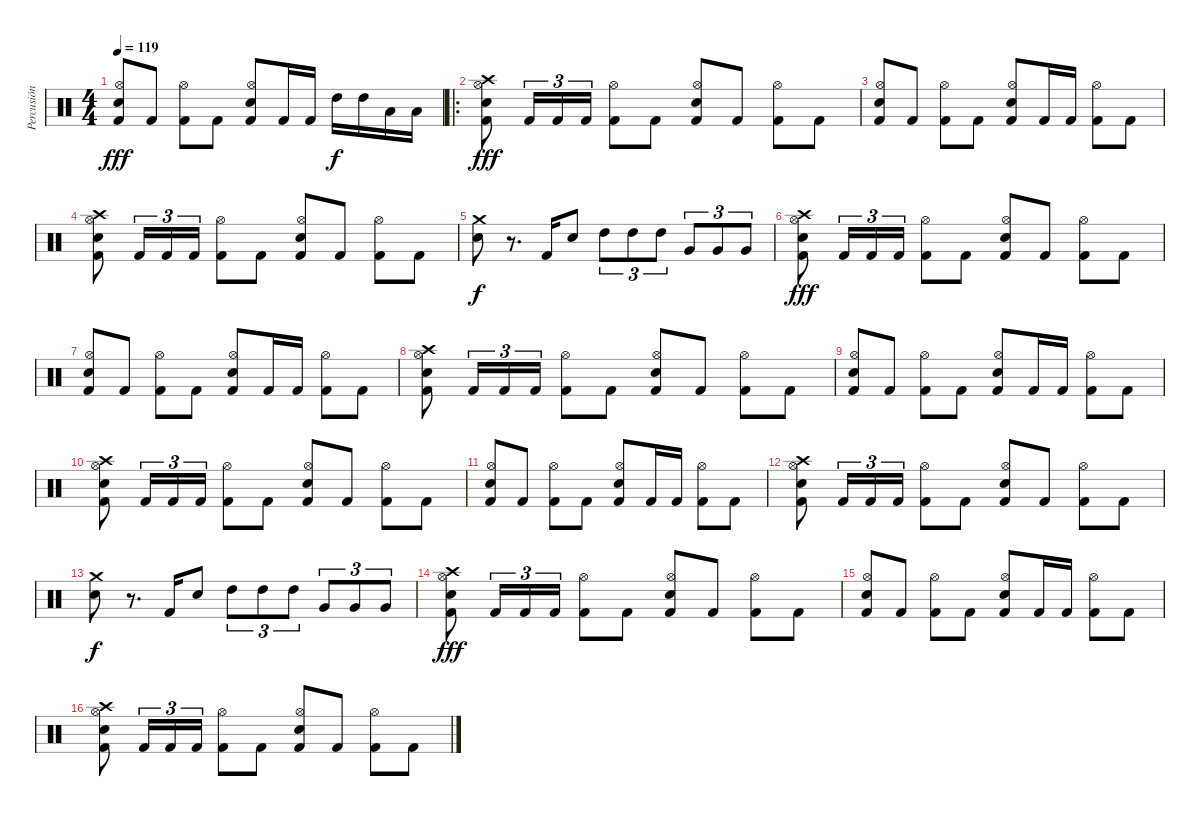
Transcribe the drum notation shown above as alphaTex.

\track ("Percusión" "Percusión") {instrument percussion}
\staff {score}
\articulation defaults
\ts (4 4)
\tempo 119
\clef neutral
\ks c
("Electric Snare (hit)" "Hi-Hat (open)" "Kick (hit) 2").8{dy fff} "Kick (hit) 2".8 ("Hi-Hat (open)" "Kick (hit) 2").8 "Kick (hit) 2".8 ("Electric Snare (hit)" "Hi-Hat (open)" "Kick (hit) 2").8 "Kick (hit) 2".16 "Kick (hit) 2".16 "High Tom (hit)".16{dy f} "High Tom (hit)".16 "Low Tom (hit)".16 "Low Tom (hit)".16 |
\ro
("Crash high (hit)" "Electric Snare (hit)" "Hi-Hat (open)" "Kick (hit) 2").8{dy fff} "Kick (hit) 2".16{tu (3 2)} "Kick (hit) 2".16{tu (3 2)} "Kick (hit) 2".16{tu (3 2)} ("Hi-Hat (open)" "Kick (hit) 2").8 "Kick (hit) 2".8 ("Electric Snare (hit)" "Hi-Hat (open)" "Kick (hit) 2").8 "Kick (hit) 2".8 ("Hi-Hat (open)" "Kick (hit) 2").8 "Kick (hit) 2".8 |
("Electric Snare (hit)" "Hi-Hat (open)" "Kick (hit) 2").8 "Kick (hit) 2".8 ("Hi-Hat (open)" "Kick (hit) 2").8 "Kick (hit) 2".8 ("Electric Snare (hit)" "Hi-Hat (open)" "Kick (hit) 2").8 "Kick (hit) 2".16 "Kick (hit) 2".16 ("Hi-Hat (open)" "Kick (hit) 2").8 "Kick (hit) 2".8 |
("Crash high (hit)" "Electric Snare (hit)" "Hi-Hat (open)" "Kick (hit) 2").8 "Kick (hit) 2".16{tu (3 2)} "Kick (hit) 2".16{tu (3 2)} "Kick (hit) 2".16{tu (3 2)} ("Hi-Hat (open)" "Kick (hit) 2").8 "Kick (hit) 2".8 ("Electric Snare (hit)" "Hi-Hat (open)" "Kick (hit) 2").8 "Kick (hit) 2".8 ("Hi-Hat (open)" "Kick (hit) 2").8 "Kick (hit) 2".8 |
("Crash medium (hit)" "Electric Snare (hit)").8{dy f} r.8{d} "Kick (hit) 2".16 "Electric Snare (hit)".8 "High Tom (hit)".8{tu (3 2)} "High Tom (hit)".8{tu (3 2)} "High Tom (hit)".8{tu (3 2)} "Very Low Tom (hit)".8{tu (3 2)} "Very Low Tom (hit)".8{tu (3 2)} "Very Low Tom (hit)".8{tu (3 2)} |
("Crash high (hit)" "Electric Snare (hit)" "Hi-Hat (open)" "Kick (hit) 2").8{dy fff} "Kick (hit) 2".16{tu (3 2)} "Kick (hit) 2".16{tu (3 2)} "Kick (hit) 2".16{tu (3 2)} ("Hi-Hat (open)" "Kick (hit) 2").8 "Kick (hit) 2".8 ("Electric Snare (hit)" "Hi-Hat (open)" "Kick (hit) 2").8 "Kick (hit) 2".8 ("Hi-Hat (open)" "Kick (hit) 2").8 "Kick (hit) 2".8 |
("Electric Snare (hit)" "Hi-Hat (open)" "Kick (hit) 2").8 "Kick (hit) 2".8 ("Hi-Hat (open)" "Kick (hit) 2").8 "Kick (hit) 2".8 ("Electric Snare (hit)" "Hi-Hat (open)" "Kick (hit) 2").8 "Kick (hit) 2".16 "Kick (hit) 2".16 ("Hi-Hat (open)" "Kick (hit) 2").8 "Kick (hit) 2".8 |
("Crash high (hit)" "Electric Snare (hit)" "Hi-Hat (open)" "Kick (hit) 2").8 "Kick (hit) 2".16{tu (3 2)} "Kick (hit) 2".16{tu (3 2)} "Kick (hit) 2".16{tu (3 2)} ("Hi-Hat (open)" "Kick (hit) 2").8 "Kick (hit) 2".8 ("Electric Snare (hit)" "Hi-Hat (open)" "Kick (hit) 2").8 "Kick (hit) 2".8 ("Hi-Hat (open)" "Kick (hit) 2").8 "Kick (hit) 2".8 |
("Electric Snare (hit)" "Hi-Hat (open)" "Kick (hit) 2").8 "Kick (hit) 2".8 ("Hi-Hat (open)" "Kick (hit) 2").8 "Kick (hit) 2".8 ("Electric Snare (hit)" "Hi-Hat (open)" "Kick (hit) 2").8 "Kick (hit) 2".16 "Kick (hit) 2".16 ("Hi-Hat (open)" "Kick (hit) 2").8 "Kick (hit) 2".8 |
("Crash high (hit)" "Electric Snare (hit)" "Hi-Hat (open)" "Kick (hit) 2").8 "Kick (hit) 2".16{tu (3 2)} "Kick (hit) 2".16{tu (3 2)} "Kick (hit) 2".16{tu (3 2)} ("Hi-Hat (open)" "Kick (hit) 2").8 "Kick (hit) 2".8 ("Electric Snare (hit)" "Hi-Hat (open)" "Kick (hit) 2").8 "Kick (hit) 2".8 ("Hi-Hat (open)" "Kick (hit) 2").8 "Kick (hit) 2".8 |
("Electric Snare (hit)" "Hi-Hat (open)" "Kick (hit) 2").8 "Kick (hit) 2".8 ("Hi-Hat (open)" "Kick (hit) 2").8 "Kick (hit) 2".8 ("Electric Snare (hit)" "Hi-Hat (open)" "Kick (hit) 2").8 "Kick (hit) 2".16 "Kick (hit) 2".16 ("Hi-Hat (open)" "Kick (hit) 2").8 "Kick (hit) 2".8 |
("Crash high (hit)" "Electric Snare (hit)" "Hi-Hat (open)" "Kick (hit) 2").8 "Kick (hit) 2".16{tu (3 2)} "Kick (hit) 2".16{tu (3 2)} "Kick (hit) 2".16{tu (3 2)} ("Hi-Hat (open)" "Kick (hit) 2").8 "Kick (hit) 2".8 ("Electric Snare (hit)" "Hi-Hat (open)" "Kick (hit) 2").8 "Kick (hit) 2".8 ("Hi-Hat (open)" "Kick (hit) 2").8 "Kick (hit) 2".8 |
("Crash medium (hit)" "Electric Snare (hit)").8{dy f} r.8{d} "Kick (hit) 2".16 "Electric Snare (hit)".8 "High Tom (hit)".8{tu (3 2)} "High Tom (hit)".8{tu (3 2)} "High Tom (hit)".8{tu (3 2)} "Very Low Tom (hit)".8{tu (3 2)} "Very Low Tom (hit)".8{tu (3 2)} "Very Low Tom (hit)".8{tu (3 2)} |
("Crash high (hit)" "Electric Snare (hit)" "Hi-Hat (open)" "Kick (hit) 2").8{dy fff} "Kick (hit) 2".16{tu (3 2)} "Kick (hit) 2".16{tu (3 2)} "Kick (hit) 2".16{tu (3 2)} ("Hi-Hat (open)" "Kick (hit) 2").8 "Kick (hit) 2".8 ("Electric Snare (hit)" "Hi-Hat (open)" "Kick (hit) 2").8 "Kick (hit) 2".8 ("Hi-Hat (open)" "Kick (hit) 2").8 "Kick (hit) 2".8 |
("Electric Snare (hit)" "Hi-Hat (open)" "Kick (hit) 2").8 "Kick (hit) 2".8 ("Hi-Hat (open)" "Kick (hit) 2").8 "Kick (hit) 2".8 ("Electric Snare (hit)" "Hi-Hat (open)" "Kick (hit) 2").8 "Kick (hit) 2".16 "Kick (hit) 2".16 ("Hi-Hat (open)" "Kick (hit) 2").8 "Kick (hit) 2".8 |
("Crash high (hit)" "Electric Snare (hit)" "Hi-Hat (open)" "Kick (hit) 2").8 "Kick (hit) 2".16{tu (3 2)} "Kick (hit) 2".16{tu (3 2)} "Kick (hit) 2".16{tu (3 2)} ("Hi-Hat (open)" "Kick (hit) 2").8 "Kick (hit) 2".8 ("Electric Snare (hit)" "Hi-Hat (open)" "Kick (hit) 2").8 "Kick (hit) 2".8 ("Hi-Hat (open)" "Kick (hit) 2").8 "Kick (hit) 2".8
